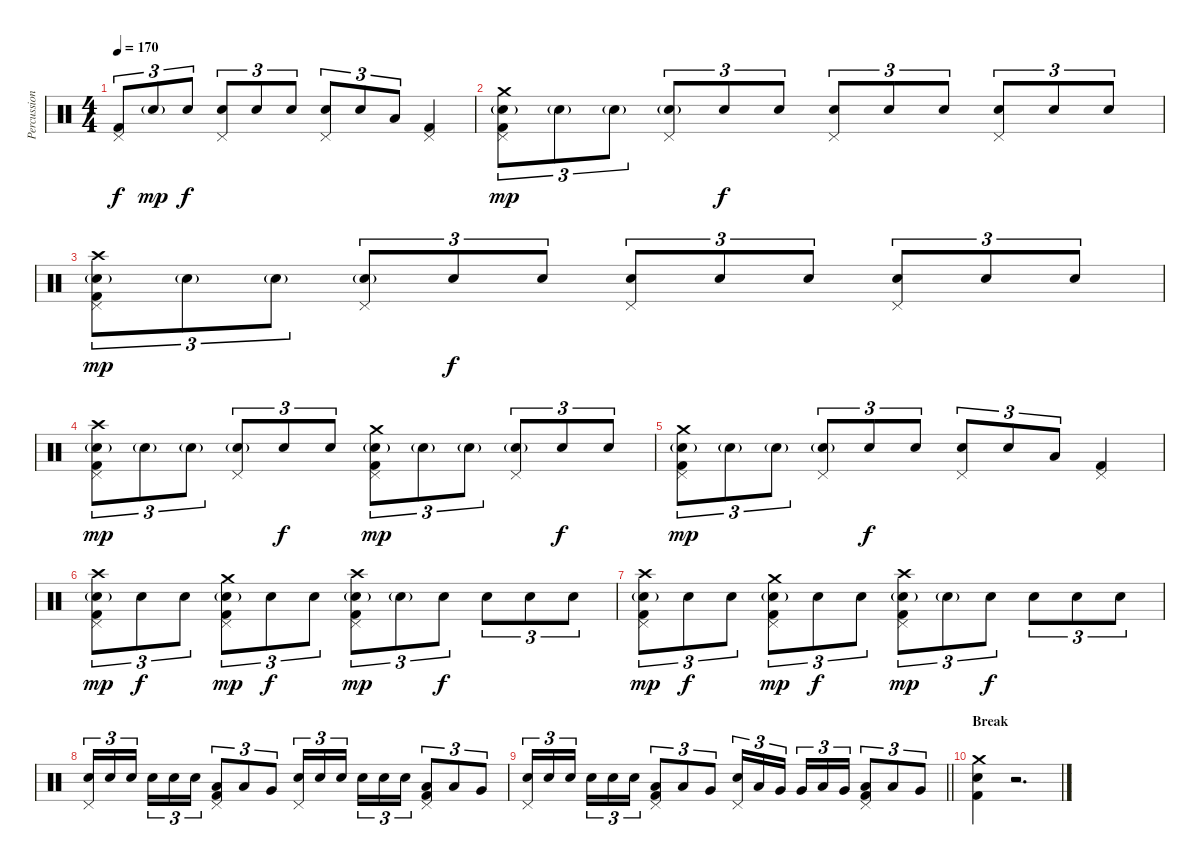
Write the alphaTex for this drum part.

\track ("Percussion" "Percussion") {instrument percussion}
\staff {score}
\articulation defaults
\ts (4 4)
\tempo 170
\clef neutral
\ks c
("Pedal Hi-Hat (hit)" "Kick (hit) 2").8{tu (3 2) dy f} "Snare (hit) 2"{g}.8{tu (3 2) dy mp} "Snare (hit) 2".8{tu (3 2) dy f} ("Pedal Hi-Hat (hit)" "Snare (hit) 2").8{tu (3 2)} "Snare (hit) 2".8{tu (3 2)} "Snare (hit) 2".8{tu (3 2)} ("Pedal Hi-Hat (hit)" "Snare (hit) 2").8{tu (3 2)} "Snare (hit) 2".8{tu (3 2)} "Low Tom (hit)".8{tu (3 2)} ("Pedal Hi-Hat (hit)" "Kick (hit) 2").4 |
("Crash medium (hit)" "Pedal Hi-Hat (hit)" "Snare (hit) 2"{g} "Kick (hit) 2").8{tu (3 2) dy mp} "Snare (hit) 2"{g}.8{tu (3 2)} "Snare (hit) 2"{g}.8{tu (3 2)} ("Pedal Hi-Hat (hit)" "Snare (hit) 2"{g}).8{tu (3 2)} "Snare (hit) 2".8{tu (3 2) dy f} "Snare (hit) 2".8{tu (3 2)} ("Pedal Hi-Hat (hit)" "Snare (hit) 2").8{tu (3 2)} "Snare (hit) 2".8{tu (3 2)} "Snare (hit) 2".8{tu (3 2)} ("Pedal Hi-Hat (hit)" "Snare (hit) 2").8{tu (3 2)} "Snare (hit) 2".8{tu (3 2)} "Snare (hit) 2".8{tu (3 2)} |
("Crash high (hit)" "Pedal Hi-Hat (hit)" "Snare (hit) 2"{g} "Kick (hit) 2").8{tu (3 2) dy mp} "Snare (hit) 2"{g}.8{tu (3 2)} "Snare (hit) 2"{g}.8{tu (3 2)} ("Pedal Hi-Hat (hit)" "Snare (hit) 2"{g}).8{tu (3 2)} "Snare (hit) 2".8{tu (3 2) dy f} "Snare (hit) 2".8{tu (3 2)} ("Pedal Hi-Hat (hit)" "Snare (hit) 2").8{tu (3 2)} "Snare (hit) 2".8{tu (3 2)} "Snare (hit) 2".8{tu (3 2)} ("Pedal Hi-Hat (hit)" "Snare (hit) 2").8{tu (3 2)} "Snare (hit) 2".8{tu (3 2)} "Snare (hit) 2".8{tu (3 2)} |
("Crash high (hit)" "Pedal Hi-Hat (hit)" "Snare (hit) 2"{g} "Kick (hit) 2").8{tu (3 2) dy mp} "Snare (hit) 2"{g}.8{tu (3 2)} "Snare (hit) 2"{g}.8{tu (3 2)} ("Pedal Hi-Hat (hit)" "Snare (hit) 2"{g}).8{tu (3 2)} "Snare (hit) 2".8{tu (3 2) dy f} "Snare (hit) 2".8{tu (3 2)} ("Crash medium (hit)" "Pedal Hi-Hat (hit)" "Snare (hit) 2"{g} "Kick (hit) 2").8{tu (3 2) dy mp} "Snare (hit) 2"{g}.8{tu (3 2)} "Snare (hit) 2"{g}.8{tu (3 2)} ("Pedal Hi-Hat (hit)" "Snare (hit) 2"{g}).8{tu (3 2)} "Snare (hit) 2".8{tu (3 2) dy f} "Snare (hit) 2".8{tu (3 2)} |
("Crash medium (hit)" "Pedal Hi-Hat (hit)" "Snare (hit) 2"{g} "Kick (hit) 2").8{tu (3 2) dy mp} "Snare (hit) 2"{g}.8{tu (3 2)} "Snare (hit) 2"{g}.8{tu (3 2)} ("Pedal Hi-Hat (hit)" "Snare (hit) 2"{g}).8{tu (3 2)} "Snare (hit) 2".8{tu (3 2) dy f} "Snare (hit) 2".8{tu (3 2)} ("Pedal Hi-Hat (hit)" "Snare (hit) 2").8{tu (3 2)} "Snare (hit) 2".8{tu (3 2)} "Low Tom (hit)".8{tu (3 2)} ("Pedal Hi-Hat (hit)" "Kick (hit) 2").4 |
("Crash high (hit)" "Pedal Hi-Hat (hit)" "Snare (hit) 2"{g} "Kick (hit) 2").8{tu (3 2) dy mp} "Snare (hit) 2".8{tu (3 2) dy f} "Snare (hit) 2".8{tu (3 2)} ("Crash medium (hit)" "Pedal Hi-Hat (hit)" "Snare (hit) 2"{g} "Kick (hit) 2").8{tu (3 2) dy mp} "Snare (hit) 2".8{tu (3 2) dy f} "Snare (hit) 2".8{tu (3 2)} ("Crash high (hit)" "Pedal Hi-Hat (hit)" "Snare (hit) 2"{g} "Kick (hit) 2").8{tu (3 2) dy mp} "Snare (hit) 2"{g}.8{tu (3 2)} "Snare (hit) 2".8{tu (3 2) dy f} "Snare (hit) 2".8{tu (3 2)} "Snare (hit) 2".8{tu (3 2)} "Snare (hit) 2".8{tu (3 2)} |
("Crash high (hit)" "Pedal Hi-Hat (hit)" "Snare (hit) 2"{g} "Kick (hit) 2").8{tu (3 2) dy mp} "Snare (hit) 2".8{tu (3 2) dy f} "Snare (hit) 2".8{tu (3 2)} ("Crash medium (hit)" "Pedal Hi-Hat (hit)" "Snare (hit) 2"{g} "Kick (hit) 2").8{tu (3 2) dy mp} "Snare (hit) 2".8{tu (3 2) dy f} "Snare (hit) 2".8{tu (3 2)} ("Crash high (hit)" "Pedal Hi-Hat (hit)" "Snare (hit) 2"{g} "Kick (hit) 2").8{tu (3 2) dy mp} "Snare (hit) 2"{g}.8{tu (3 2)} "Snare (hit) 2".8{tu (3 2) dy f} "Snare (hit) 2".8{tu (3 2)} "Snare (hit) 2".8{tu (3 2)} "Snare (hit) 2".8{tu (3 2)} |
("Pedal Hi-Hat (hit)" "Snare (hit) 2").16{tu (3 2)} "Snare (hit) 2".16{tu (3 2)} "Snare (hit) 2".16{tu (3 2) beam splitsecondary} "Snare (hit) 2".16{tu (3 2)} "Snare (hit) 2".16{tu (3 2)} "Snare (hit) 2".16{tu (3 2)} ("Pedal Hi-Hat (hit)" "Low Tom (hit)" "Kick (hit) 2").8{tu (3 2)} "Low Tom (hit)".8{tu (3 2)} "Very Low Tom (hit)".8{tu (3 2)} ("Pedal Hi-Hat (hit)" "Snare (hit) 2").16{tu (3 2)} "Snare (hit) 2".16{tu (3 2)} "Snare (hit) 2".16{tu (3 2) beam splitsecondary} "Snare (hit) 2".16{tu (3 2)} "Snare (hit) 2".16{tu (3 2)} "Snare (hit) 2".16{tu (3 2)} ("Pedal Hi-Hat (hit)" "Low Tom (hit)" "Kick (hit) 2").8{tu (3 2)} "Low Tom (hit)".8{tu (3 2)} "Very Low Tom (hit)".8{tu (3 2)} |
\barLineRight lightlight
("Pedal Hi-Hat (hit)" "Snare (hit) 2").16{tu (3 2)} "Snare (hit) 2".16{tu (3 2)} "Snare (hit) 2".16{tu (3 2) beam splitsecondary} "Snare (hit) 2".16{tu (3 2)} "Snare (hit) 2".16{tu (3 2)} "Snare (hit) 2".16{tu (3 2)} ("Pedal Hi-Hat (hit)" "Low Tom (hit)" "Kick (hit) 2").8{tu (3 2)} "Low Tom (hit)".8{tu (3 2)} "Very Low Tom (hit)".8{tu (3 2)} ("Pedal Hi-Hat (hit)" "Snare (hit) 2").16{tu (3 2)} "Low Tom (hit)".16{tu (3 2)} "Very Low Tom (hit)".16{tu (3 2) beam splitsecondary} "Very Low Tom (hit)".16{tu (3 2)} "Low Tom (hit)".16{tu (3 2)} "Very Low Tom (hit)".16{tu (3 2)} ("Pedal Hi-Hat (hit)" "Low Tom (hit)" "Kick (hit) 2").8{tu (3 2)} "Low Tom (hit)".8{tu (3 2)} "Very Low Tom (hit)".8{tu (3 2)} |
\section ("" "Break")
("Crash medium (hit)" "Snare (hit) 2" "Kick (hit) 2").4 r.2{d}
